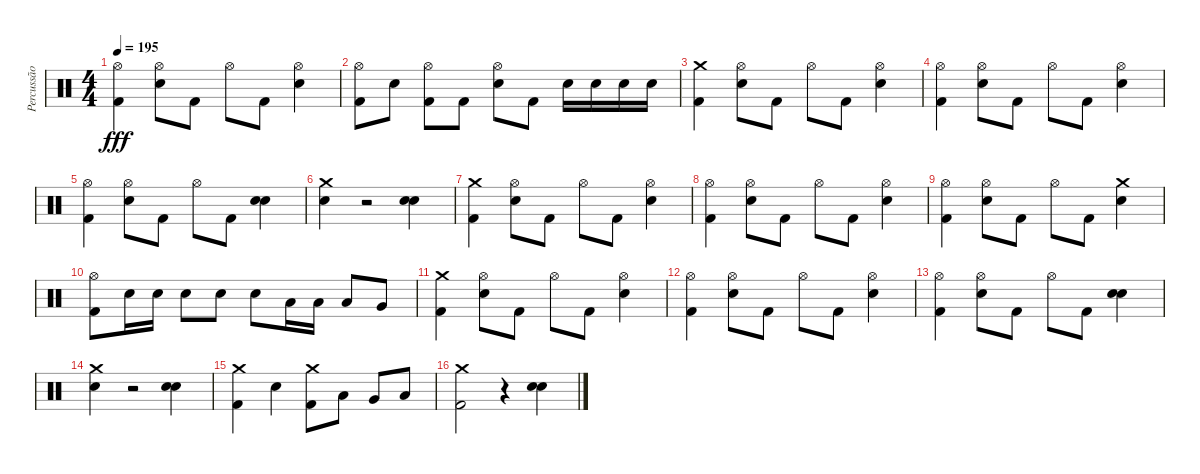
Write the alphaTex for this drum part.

\track ("Percussão" "Percussão") {instrument percussion}
\staff {score}
\articulation defaults
\ts (4 4)
\tempo 195
\clef neutral
\ks c
("Hi-Hat (open)" "Kick (hit) 2").4{dy fff} ("Hi-Hat (open)" "Electric Snare (hit)").8 "Kick (hit) 2".8 "Hi-Hat (open)".8 "Kick (hit) 2".8 ("Hi-Hat (open)" "Electric Snare (hit)").4 |
("Hi-Hat (open)" "Kick (hit) 2").8 "Electric Snare (hit)".8 ("Hi-Hat (open)" "Kick (hit) 2").8 "Kick (hit) 2".8 ("Hi-Hat (open)" "Electric Snare (hit)").8 "Kick (hit) 2".8 "Electric Snare (hit)".16 "Electric Snare (hit)".16 "Electric Snare (hit)".16 "Electric Snare (hit)".16 |
("Crash medium (hit)" "Kick (hit) 2").4 ("Hi-Hat (open)" "Electric Snare (hit)").8 "Kick (hit) 2".8 "Hi-Hat (open)".8 "Kick (hit) 2".8 ("Hi-Hat (open)" "Electric Snare (hit)").4 |
("Hi-Hat (open)" "Kick (hit) 2").4 ("Hi-Hat (open)" "Electric Snare (hit)").8 "Kick (hit) 2".8 "Hi-Hat (open)".8 "Kick (hit) 2".8 ("Hi-Hat (open)" "Electric Snare (hit)").4 |
("Hi-Hat (open)" "Kick (hit) 2").4 ("Hi-Hat (open)" "Electric Snare (hit)").8 "Kick (hit) 2".8 "Hi-Hat (open)".8 "Kick (hit) 2".8 ("Electric Snare (hit)" "Electric Snare (hit)").4{bd 240} |
("Crash medium (hit)" "Electric Snare (hit)").4 r.2 ("Electric Snare (hit)" "Electric Snare (hit)").4{bd 240} |
("Crash medium (hit)" "Kick (hit) 2").4 ("Hi-Hat (open)" "Electric Snare (hit)").8 "Kick (hit) 2".8 "Hi-Hat (open)".8 "Kick (hit) 2".8 ("Hi-Hat (open)" "Electric Snare (hit)").4 |
("Hi-Hat (open)" "Kick (hit) 2").4 ("Hi-Hat (open)" "Electric Snare (hit)").8 "Kick (hit) 2".8 "Hi-Hat (open)".8 "Kick (hit) 2".8 ("Hi-Hat (open)" "Electric Snare (hit)").4 |
("Hi-Hat (open)" "Kick (hit) 2").4 ("Hi-Hat (open)" "Electric Snare (hit)").8 "Kick (hit) 2".8 "Hi-Hat (open)".8 "Kick (hit) 2".8 ("Crash medium (hit)" "Electric Snare (hit)").4 |
("Hi-Hat (open)" "Kick (hit) 2").8 "Electric Snare (hit)".16 "Electric Snare (hit)".16 "Electric Snare (hit)".8 "Electric Snare (hit)".8 "Electric Snare (hit)".8 "Low Tom (hit)".16 "Low Tom (hit)".16 "Low Tom (hit)".8 "Very Low Tom (hit)".8 |
("Crash medium (hit)" "Kick (hit) 2").4 ("Hi-Hat (open)" "Electric Snare (hit)").8 "Kick (hit) 2".8 "Hi-Hat (open)".8 "Kick (hit) 2".8 ("Hi-Hat (open)" "Electric Snare (hit)").4 |
("Hi-Hat (open)" "Kick (hit) 2").4 ("Hi-Hat (open)" "Electric Snare (hit)").8 "Kick (hit) 2".8 "Hi-Hat (open)".8 "Kick (hit) 2".8 ("Hi-Hat (open)" "Electric Snare (hit)").4 |
("Hi-Hat (open)" "Kick (hit) 2").4 ("Hi-Hat (open)" "Electric Snare (hit)").8 "Kick (hit) 2".8 "Hi-Hat (open)".8 "Kick (hit) 2".8 ("Electric Snare (hit)" "Electric Snare (hit)").4{bd 240} |
("Crash medium (hit)" "Electric Snare (hit)").4 r.2 ("Electric Snare (hit)" "Electric Snare (hit)").4{bd 240} |
("Crash medium (hit)" "Kick (hit) 2").4 "Electric Snare (hit)".4 ("Crash medium (hit)" "Kick (hit) 2").8 "Low Tom (hit)".8 "Very Low Tom (hit)".8 "Low Floor Tom (hit)".8 |
("Crash medium (hit)" "Kick (hit) 2").2 r.4 ("Electric Snare (hit)" "Electric Snare (hit)").4{bd 240}
